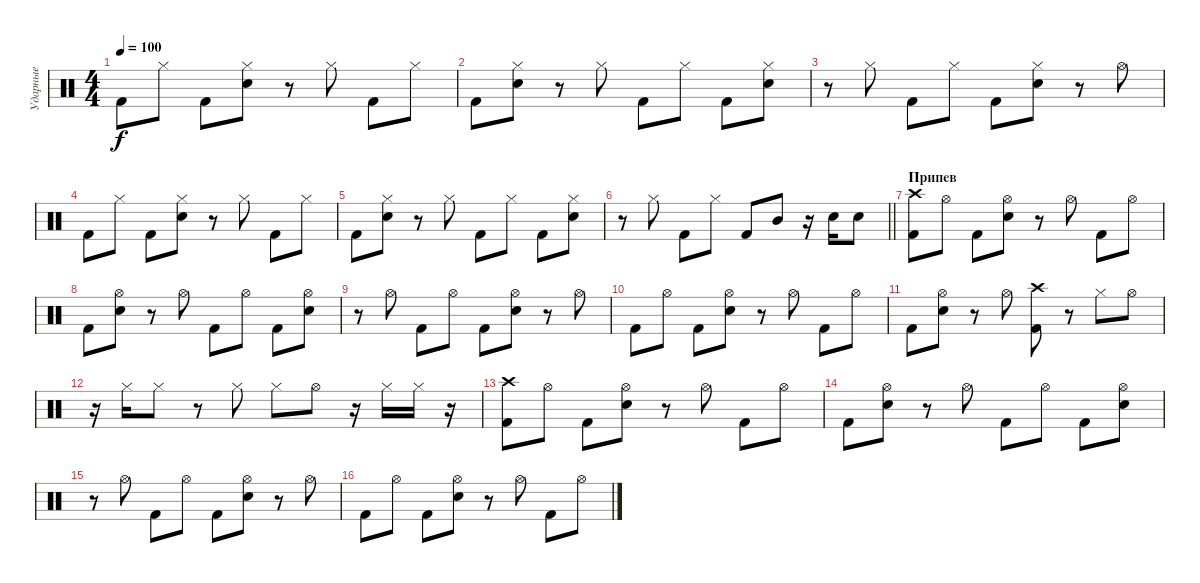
\track ("Ударные" "Ударные") {instrument percussion}
\staff {score}
\articulation defaults
\ts (4 4)
\tempo 100
\clef neutral
\ks c "Kick (hit) 2".8{dy f} "Hi-Hat (closed)".8 "Kick (hit) 2".8
("Snare (hit) 2" "Hi-Hat (closed)").8 r.8 "Hi-Hat (closed)".8 "Kick (hit) 2".8 "Hi-Hat (closed)".8 |
"Kick (hit) 2".8 ("Snare (hit) 2" "Hi-Hat (closed)").8 r.8 "Hi-Hat (closed)".8 "Kick (hit) 2".8 "Hi-Hat (closed)".8 "Kick (hit) 2".8 ("Snare (hit) 2" "Hi-Hat (closed)").8 |
r.8 "Hi-Hat (closed)".8 "Kick (hit) 2".8 "Hi-Hat (closed)".8 "Kick (hit) 2".8 ("Snare (hit) 2" "Hi-Hat (closed)").8 r.8 "Hi-Hat (open)".8 |
"Kick (hit) 2".8 "Hi-Hat (closed)".8 "Kick (hit) 2".8 ("Snare (hit) 2" "Hi-Hat (closed)").8 r.8 "Hi-Hat (closed)".8 "Kick (hit) 2".8 "Hi-Hat (closed)".8 |
"Kick (hit) 2".8 ("Snare (hit) 2" "Hi-Hat (closed)").8 r.8 "Hi-Hat (closed)".8 "Kick (hit) 2".8 "Hi-Hat (closed)".8 "Kick (hit) 2".8 ("Snare (hit) 2" "Hi-Hat (closed)").8 |
\barLineRight lightlight
r.8 "Hi-Hat (closed)".8 "Kick (hit) 2".8 "Hi-Hat (closed)".8 "Kick (hit) 2".8 "Mid Tom (hit)".8 r.16 "Snare (hit) 2".16 "Snare (hit) 2".8 |
\section ("" "Припев")
("Kick (hit) 2" "Crash high (hit)").8 "Hi-Hat (open)".8 "Kick (hit) 2".8 ("Snare (hit) 2" "Hi-Hat (open)").8 r.8 "Hi-Hat (open)".8 "Kick (hit) 2".8 "Hi-Hat (open)".8 |
"Kick (hit) 2".8 ("Snare (hit) 2" "Hi-Hat (open)").8 r.8 "Hi-Hat (open)".8 "Kick (hit) 2".8 "Hi-Hat (open)".8 "Kick (hit) 2".8 ("Snare (hit) 2" "Hi-Hat (open)").8 |
r.8 "Hi-Hat (open)".8 "Kick (hit) 2".8 "Hi-Hat (open)".8 "Kick (hit) 2".8 ("Snare (hit) 2" "Hi-Hat (open)").8 r.8 "Hi-Hat (open)".8 |
"Kick (hit) 2".8 "Hi-Hat (open)".8 "Kick (hit) 2".8 ("Snare (hit) 2" "Hi-Hat (open)").8 r.8 "Hi-Hat (open)".8 "Kick (hit) 2".8 "Hi-Hat (open)".8 |
"Kick (hit) 2".8 ("Snare (hit) 2" "Hi-Hat (open)").8 r.8 "Hi-Hat (open)".8 ("Kick (hit) 2" "Crash high (hit)").8 r.8 "Hi-Hat (closed)".8 "Hi-Hat (open)".8 |
r.16 "Hi-Hat (closed)".16 "Hi-Hat (closed)".8 r.8 "Hi-Hat (closed)".8 "Hi-Hat (closed)".8 "Hi-Hat (open)".8 r.16 "Hi-Hat (closed)".16 "Hi-Hat (closed)".16 r.16 |
("Kick (hit) 2" "Crash high (hit)").8 "Hi-Hat (open)".8 "Kick (hit) 2".8 ("Snare (hit) 2" "Hi-Hat (open)").8 r.8 "Hi-Hat (open)".8 "Kick (hit) 2".8 "Hi-Hat (open)".8 |
"Kick (hit) 2".8 ("Snare (hit) 2" "Hi-Hat (open)").8 r.8 "Hi-Hat (open)".8 "Kick (hit) 2".8 "Hi-Hat (open)".8 "Kick (hit) 2".8 ("Snare (hit) 2" "Hi-Hat (open)").8 |
r.8 "Hi-Hat (open)".8 "Kick (hit) 2".8 "Hi-Hat (open)".8 "Kick (hit) 2".8 ("Snare (hit) 2" "Hi-Hat (open)").8 r.8 "Hi-Hat (open)".8 |
"Kick (hit) 2".8 "Hi-Hat (open)".8 "Kick (hit) 2".8 ("Snare (hit) 2" "Hi-Hat (open)").8 r.8 "Hi-Hat (open)".8 "Kick (hit) 2".8 "Hi-Hat (open)".8
